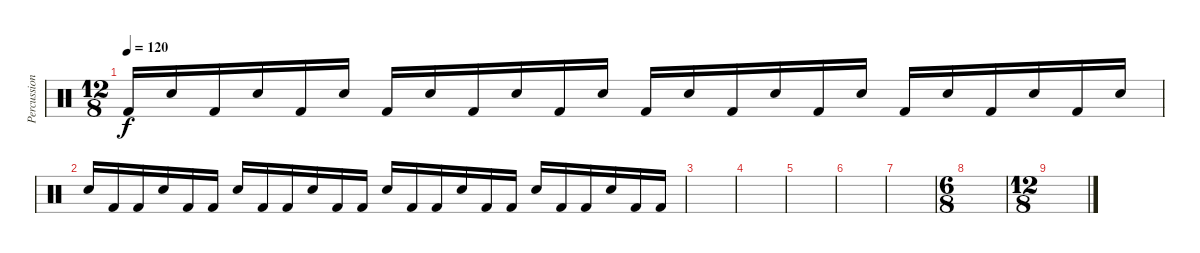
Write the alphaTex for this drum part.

\track ("Percussion" "Percussion") {instrument percussion}
\staff {score}
\articulation defaults
\ts (12 8)
\tempo 120
\clef neutral
\ks c "Kick (hit) 2".16{dy f} "Electric Snare (hit)".16 "Kick (hit) 2".16 "Electric Snare (hit)".16 "Kick (hit) 2".16 "Electric Snare (hit)".16 "Kick (hit) 2".16 "Electric Snare (hit)".16 "Kick (hit) 2".16 "Electric Snare (hit)".16 "Kick (hit) 2".16 "Electric Snare (hit)".16 "Kick (hit) 2".16 "Electric Snare (hit)".16 "Kick (hit) 2".16 "Electric Snare (hit)".16 "Kick (hit) 2".16 "Electric Snare (hit)".16 "Kick (hit) 2".16 "Electric Snare (hit)".16 "Kick (hit) 2".16 "Electric Snare (hit)".16 "Kick (hit) 2".16 "Electric Snare (hit)".16
|
"Electric Snare (hit)".16 "Kick (hit) 2".16 "Kick (hit) 2".16 "Electric Snare (hit)".16 "Kick (hit) 2".16 "Kick (hit) 2".16 "Electric Snare (hit)".16 "Kick (hit) 2".16 "Kick (hit) 2".16 "Electric Snare (hit)".16 "Kick (hit) 2".16 "Kick (hit) 2".16 "Electric Snare (hit)".16 "Kick (hit) 2".16 "Kick (hit) 2".16 "Electric Snare (hit)".16 "Kick (hit) 2".16 "Kick (hit) 2".16 "Electric Snare (hit)".16 "Kick (hit) 2".16 "Kick (hit) 2".16 "Electric Snare (hit)".16 "Kick (hit) 2".16 "Kick (hit) 2".16 |
|
|
|
|
|
\ts (6 8)
|
\ts (12 8)
